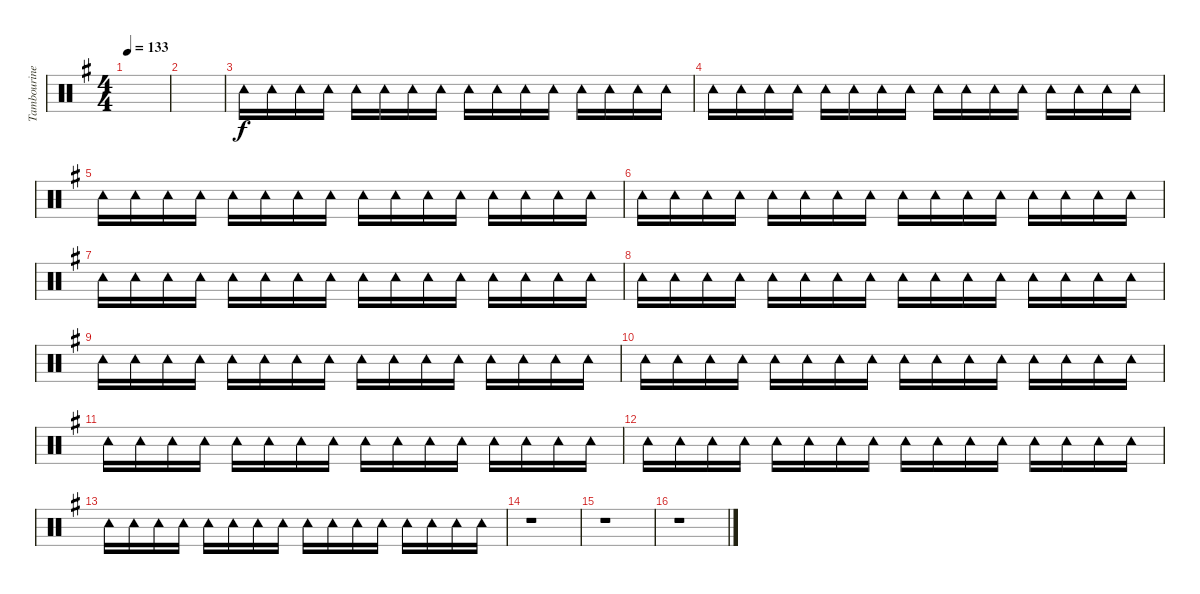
\track ("Tambourine" "Tambourine") {instrument percussion}
\staff {score}
\articulation defaults
\ts (4 4)
\tempo 133
\clef neutral
\ks g
|
|
"Tambourine (hit)".16 "Tambourine (hit)".16 "Tambourine (hit)".16 "Tambourine (hit)".16 "Tambourine (hit)".16 "Tambourine (hit)".16 "Tambourine (hit)".16 "Tambourine (hit)".16 "Tambourine (hit)".16 "Tambourine (hit)".16 "Tambourine (hit)".16 "Tambourine (hit)".16 "Tambourine (hit)".16 "Tambourine (hit)".16 "Tambourine (hit)".16 "Tambourine (hit)".16 |
"Tambourine (hit)".16 "Tambourine (hit)".16 "Tambourine (hit)".16 "Tambourine (hit)".16 "Tambourine (hit)".16 "Tambourine (hit)".16 "Tambourine (hit)".16 "Tambourine (hit)".16 "Tambourine (hit)".16 "Tambourine (hit)".16 "Tambourine (hit)".16 "Tambourine (hit)".16 "Tambourine (hit)".16 "Tambourine (hit)".16 "Tambourine (hit)".16 "Tambourine (hit)".16 |
"Tambourine (hit)".16 "Tambourine (hit)".16 "Tambourine (hit)".16 "Tambourine (hit)".16 "Tambourine (hit)".16 "Tambourine (hit)".16 "Tambourine (hit)".16 "Tambourine (hit)".16 "Tambourine (hit)".16 "Tambourine (hit)".16 "Tambourine (hit)".16 "Tambourine (hit)".16 "Tambourine (hit)".16 "Tambourine (hit)".16 "Tambourine (hit)".16 "Tambourine (hit)".16 |
"Tambourine (hit)".16 "Tambourine (hit)".16 "Tambourine (hit)".16 "Tambourine (hit)".16 "Tambourine (hit)".16 "Tambourine (hit)".16 "Tambourine (hit)".16 "Tambourine (hit)".16 "Tambourine (hit)".16 "Tambourine (hit)".16 "Tambourine (hit)".16 "Tambourine (hit)".16 "Tambourine (hit)".16 "Tambourine (hit)".16 "Tambourine (hit)".16 "Tambourine (hit)".16 |
"Tambourine (hit)".16 "Tambourine (hit)".16 "Tambourine (hit)".16 "Tambourine (hit)".16 "Tambourine (hit)".16 "Tambourine (hit)".16 "Tambourine (hit)".16 "Tambourine (hit)".16 "Tambourine (hit)".16 "Tambourine (hit)".16 "Tambourine (hit)".16 "Tambourine (hit)".16 "Tambourine (hit)".16 "Tambourine (hit)".16 "Tambourine (hit)".16 "Tambourine (hit)".16 |
"Tambourine (hit)".16 "Tambourine (hit)".16 "Tambourine (hit)".16 "Tambourine (hit)".16 "Tambourine (hit)".16 "Tambourine (hit)".16 "Tambourine (hit)".16 "Tambourine (hit)".16 "Tambourine (hit)".16 "Tambourine (hit)".16 "Tambourine (hit)".16 "Tambourine (hit)".16 "Tambourine (hit)".16 "Tambourine (hit)".16 "Tambourine (hit)".16 "Tambourine (hit)".16 |
"Tambourine (hit)".16 "Tambourine (hit)".16 "Tambourine (hit)".16 "Tambourine (hit)".16 "Tambourine (hit)".16 "Tambourine (hit)".16 "Tambourine (hit)".16 "Tambourine (hit)".16 "Tambourine (hit)".16 "Tambourine (hit)".16 "Tambourine (hit)".16 "Tambourine (hit)".16 "Tambourine (hit)".16 "Tambourine (hit)".16 "Tambourine (hit)".16 "Tambourine (hit)".16 |
"Tambourine (hit)".16 "Tambourine (hit)".16 "Tambourine (hit)".16 "Tambourine (hit)".16 "Tambourine (hit)".16 "Tambourine (hit)".16 "Tambourine (hit)".16 "Tambourine (hit)".16 "Tambourine (hit)".16 "Tambourine (hit)".16 "Tambourine (hit)".16 "Tambourine (hit)".16 "Tambourine (hit)".16 "Tambourine (hit)".16 "Tambourine (hit)".16 "Tambourine (hit)".16 |
"Tambourine (hit)".16 "Tambourine (hit)".16 "Tambourine (hit)".16 "Tambourine (hit)".16 "Tambourine (hit)".16 "Tambourine (hit)".16 "Tambourine (hit)".16 "Tambourine (hit)".16 "Tambourine (hit)".16 "Tambourine (hit)".16 "Tambourine (hit)".16 "Tambourine (hit)".16 "Tambourine (hit)".16 "Tambourine (hit)".16 "Tambourine (hit)".16 "Tambourine (hit)".16 |
"Tambourine (hit)".16 "Tambourine (hit)".16 "Tambourine (hit)".16 "Tambourine (hit)".16 "Tambourine (hit)".16 "Tambourine (hit)".16 "Tambourine (hit)".16 "Tambourine (hit)".16 "Tambourine (hit)".16 "Tambourine (hit)".16 "Tambourine (hit)".16 "Tambourine (hit)".16 "Tambourine (hit)".16 "Tambourine (hit)".16 "Tambourine (hit)".16 "Tambourine (hit)".16 |
"Tambourine (hit)".16 "Tambourine (hit)".16 "Tambourine (hit)".16 "Tambourine (hit)".16 "Tambourine (hit)".16 "Tambourine (hit)".16 "Tambourine (hit)".16 "Tambourine (hit)".16 "Tambourine (hit)".16 "Tambourine (hit)".16 "Tambourine (hit)".16 "Tambourine (hit)".16 "Tambourine (hit)".16 "Tambourine (hit)".16 "Tambourine (hit)".16 "Tambourine (hit)".16 |
r.1 |
r.1 |
r.1
